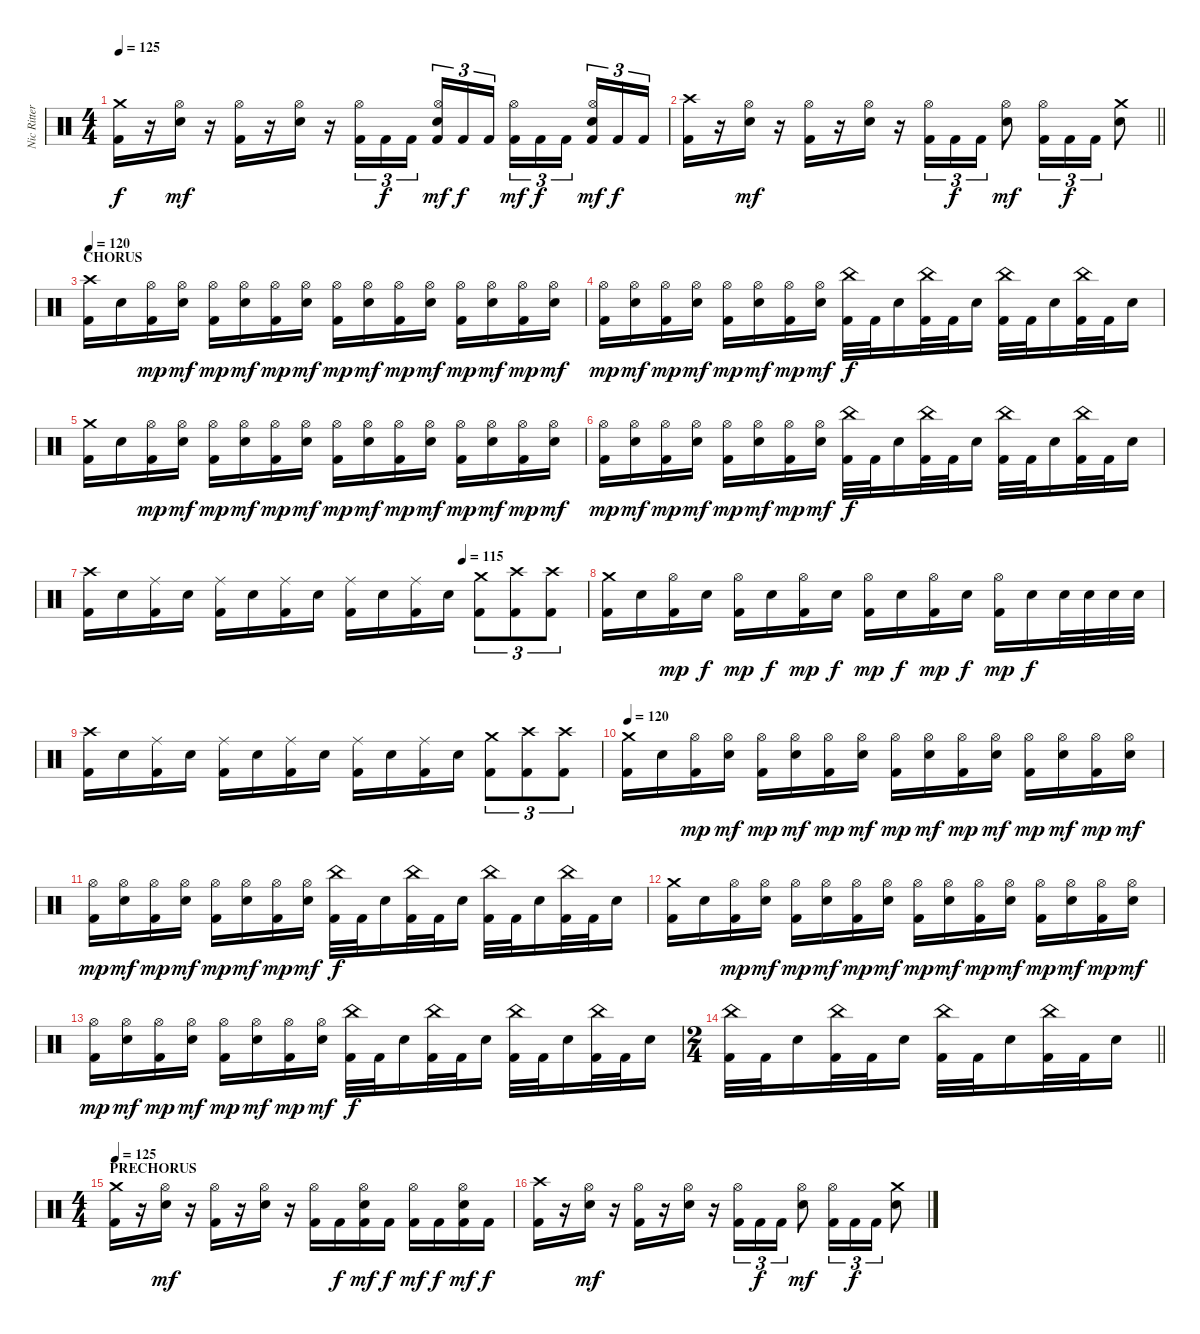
\track ("Nic Ritter" "Nic Ritter") {instrument percussion}
\staff {score}
\articulation defaults
\ts (4 4)
\tempo 125
\clef neutral
\ks c
("Crash medium (hit)" "Kick (hit) 2").16{dy f} r.16 ("Hi-Hat (open)" "Electric Snare (hit)").16{dy mf} r.16 ("Hi-Hat (open)" "Kick (hit) 2").16 r.16 ("Hi-Hat (open)" "Electric Snare (hit)").16 r.16 ("Hi-Hat (open)" "Kick (hit) 2").16{tu (3 2)} "Kick (hit) 2".16{tu (3 2) dy f} "Kick (hit) 2".16{tu (3 2) beam splitsecondary} ("Hi-Hat (open)" "Electric Snare (hit)" "Kick (hit) 2").16{tu (3 2) dy mf} "Kick (hit) 2".16{tu (3 2) dy f} "Kick (hit) 2".16{tu (3 2)} ("Hi-Hat (open)" "Kick (hit) 2").16{tu (3 2) dy mf} "Kick (hit) 2".16{tu (3 2) dy f} "Kick (hit) 2".16{tu (3 2) beam splitsecondary} ("Hi-Hat (open)" "Electric Snare (hit)" "Kick (hit) 2").16{tu (3 2) dy mf} "Kick (hit) 2".16{tu (3 2) dy f} "Kick (hit) 2".16{tu (3 2)} |
\barLineRight lightlight
("Crash high (hit)" "Kick (hit) 2").16 r.16 ("Hi-Hat (open)" "Electric Snare (hit)").16{dy mf} r.16 ("Hi-Hat (open)" "Kick (hit) 2").16 r.16 ("Hi-Hat (open)" "Electric Snare (hit)").16 r.16 ("Hi-Hat (open)" "Kick (hit) 2").16{tu (3 2)} "Kick (hit) 2".16{tu (3 2) dy f} "Kick (hit) 2".16{tu (3 2)} ("Hi-Hat (open)" "Electric Snare (hit)").8{dy mf} ("Hi-Hat (open)" "Kick (hit) 2").16{tu (3 2)} "Kick (hit) 2".16{tu (3 2) dy f} "Kick (hit) 2".16{tu (3 2)} ("Crash medium (hit)" "Electric Snare (hit)").8 |
\section ("" "CHORUS")
\tempo 120
("Crash high (hit)" "Kick (hit) 2").16 "Electric Snare (hit)".16 ("Hi-Hat (open)" "Kick (hit) 2").16{dy mp} ("Hi-Hat (open)" "Electric Snare (hit)").16{dy mf} ("Hi-Hat (open)" "Kick (hit) 2").16{dy mp} ("Hi-Hat (open)" "Electric Snare (hit)").16{dy mf} ("Hi-Hat (open)" "Kick (hit) 2").16{dy mp} ("Hi-Hat (open)" "Electric Snare (hit)").16{dy mf} ("Hi-Hat (open)" "Kick (hit) 2").16{dy mp} ("Hi-Hat (open)" "Electric Snare (hit)").16{dy mf} ("Hi-Hat (open)" "Kick (hit) 2").16{dy mp} ("Hi-Hat (open)" "Electric Snare (hit)").16{dy mf} ("Hi-Hat (open)" "Kick (hit) 2").16{dy mp} ("Hi-Hat (open)" "Electric Snare (hit)").16{dy mf} ("Hi-Hat (open)" "Kick (hit) 2").16{dy mp} ("Hi-Hat (open)" "Electric Snare (hit)").16{dy mf} |
("Hi-Hat (open)" "Kick (hit) 2").16{dy mp} ("Hi-Hat (open)" "Electric Snare (hit)").16{dy mf} ("Hi-Hat (open)" "Kick (hit) 2").16{dy mp} ("Hi-Hat (open)" "Electric Snare (hit)").16{dy mf} ("Hi-Hat (open)" "Kick (hit) 2").16{dy mp} ("Hi-Hat (open)" "Electric Snare (hit)").16{dy mf} ("Hi-Hat (open)" "Kick (hit) 2").16{dy mp} ("Hi-Hat (open)" "Electric Snare (hit)").16{dy mf} ("China (hit)" "Kick (hit) 2").32{dy f} "Kick (hit) 2".32 "Electric Snare (hit)".16 ("China (hit)" "Kick (hit) 2").32 "Kick (hit) 2".32 "Electric Snare (hit)".16 ("China (hit)" "Kick (hit) 2").32 "Kick (hit) 2".32 "Electric Snare (hit)".16 ("China (hit)" "Kick (hit) 2").32 "Kick (hit) 2".32 "Electric Snare (hit)".16 |
("Crash medium (hit)" "Kick (hit) 2").16 "Electric Snare (hit)".16 ("Hi-Hat (open)" "Kick (hit) 2").16{dy mp} ("Hi-Hat (open)" "Electric Snare (hit)").16{dy mf} ("Hi-Hat (open)" "Kick (hit) 2").16{dy mp} ("Hi-Hat (open)" "Electric Snare (hit)").16{dy mf} ("Hi-Hat (open)" "Kick (hit) 2").16{dy mp} ("Hi-Hat (open)" "Electric Snare (hit)").16{dy mf} ("Hi-Hat (open)" "Kick (hit) 2").16{dy mp} ("Hi-Hat (open)" "Electric Snare (hit)").16{dy mf} ("Hi-Hat (open)" "Kick (hit) 2").16{dy mp} ("Hi-Hat (open)" "Electric Snare (hit)").16{dy mf} ("Hi-Hat (open)" "Kick (hit) 2").16{dy mp} ("Hi-Hat (open)" "Electric Snare (hit)").16{dy mf} ("Hi-Hat (open)" "Kick (hit) 2").16{dy mp} ("Hi-Hat (open)" "Electric Snare (hit)").16{dy mf} |
("Hi-Hat (open)" "Kick (hit) 2").16{dy mp} ("Hi-Hat (open)" "Electric Snare (hit)").16{dy mf} ("Hi-Hat (open)" "Kick (hit) 2").16{dy mp} ("Hi-Hat (open)" "Electric Snare (hit)").16{dy mf} ("Hi-Hat (open)" "Kick (hit) 2").16{dy mp} ("Hi-Hat (open)" "Electric Snare (hit)").16{dy mf} ("Hi-Hat (open)" "Kick (hit) 2").16{dy mp} ("Hi-Hat (open)" "Electric Snare (hit)").16{dy mf} ("China (hit)" "Kick (hit) 2").32{dy f} "Kick (hit) 2".32 "Electric Snare (hit)".16 ("China (hit)" "Kick (hit) 2").32 "Kick (hit) 2".32 "Electric Snare (hit)".16 ("China (hit)" "Kick (hit) 2").32 "Kick (hit) 2".32 "Electric Snare (hit)".16 ("China (hit)" "Kick (hit) 2").32 "Kick (hit) 2".32 "Electric Snare (hit)".16 |
\tempo (115 0.75)
("Crash high (hit)" "Kick (hit) 2").16 "Electric Snare (hit)".16 ("Ride (middle)" "Kick (hit) 2").16 "Electric Snare (hit)".16 ("Ride (middle)" "Kick (hit) 2").16 "Electric Snare (hit)".16 ("Ride (middle)" "Kick (hit) 2").16 "Electric Snare (hit)".16 ("Ride (middle)" "Kick (hit) 2").16 "Electric Snare (hit)".16 ("Ride (middle)" "Kick (hit) 2").16 "Electric Snare (hit)".16 ("Crash medium (hit)" "Kick (hit) 2").8{tu (3 2)} ("Crash high (hit)" "Kick (hit) 2").8{tu (3 2)} ("Crash high (hit)" "Kick (hit) 2").8{tu (3 2)} |
("Crash medium (hit)" "Kick (hit) 2").16 "Electric Snare (hit)".16 ("Hi-Hat (open)" "Kick (hit) 2").16{dy mp} "Electric Snare (hit)".16{dy f} ("Hi-Hat (open)" "Kick (hit) 2").16{dy mp} "Electric Snare (hit)".16{dy f} ("Hi-Hat (open)" "Kick (hit) 2").16{dy mp} "Electric Snare (hit)".16{dy f} ("Hi-Hat (open)" "Kick (hit) 2").16{dy mp} "Electric Snare (hit)".16{dy f} ("Hi-Hat (open)" "Kick (hit) 2").16{dy mp} "Electric Snare (hit)".16{dy f} ("Hi-Hat (open)" "Kick (hit) 2").16{dy mp} "Electric Snare (hit)".16{dy f} "Electric Snare (hit)".32 "Electric Snare (hit)".32 "Electric Snare (hit)".32 "Electric Snare (hit)".32 |
("Crash high (hit)" "Kick (hit) 2").16 "Electric Snare (hit)".16 ("Ride (middle)" "Kick (hit) 2").16 "Electric Snare (hit)".16 ("Ride (middle)" "Kick (hit) 2").16 "Electric Snare (hit)".16 ("Ride (middle)" "Kick (hit) 2").16 "Electric Snare (hit)".16 ("Ride (middle)" "Kick (hit) 2").16 "Electric Snare (hit)".16 ("Ride (middle)" "Kick (hit) 2").16 "Electric Snare (hit)".16 ("Crash medium (hit)" "Kick (hit) 2").8{tu (3 2)} ("Crash high (hit)" "Kick (hit) 2").8{tu (3 2)} ("Crash high (hit)" "Kick (hit) 2").8{tu (3 2)} |
\tempo 120
("Crash medium (hit)" "Kick (hit) 2").16 "Electric Snare (hit)".16 ("Hi-Hat (open)" "Kick (hit) 2").16{dy mp} ("Hi-Hat (open)" "Electric Snare (hit)").16{dy mf} ("Hi-Hat (open)" "Kick (hit) 2").16{dy mp} ("Hi-Hat (open)" "Electric Snare (hit)").16{dy mf} ("Hi-Hat (open)" "Kick (hit) 2").16{dy mp} ("Hi-Hat (open)" "Electric Snare (hit)").16{dy mf} ("Hi-Hat (open)" "Kick (hit) 2").16{dy mp} ("Hi-Hat (open)" "Electric Snare (hit)").16{dy mf} ("Hi-Hat (open)" "Kick (hit) 2").16{dy mp} ("Hi-Hat (open)" "Electric Snare (hit)").16{dy mf} ("Hi-Hat (open)" "Kick (hit) 2").16{dy mp} ("Hi-Hat (open)" "Electric Snare (hit)").16{dy mf} ("Hi-Hat (open)" "Kick (hit) 2").16{dy mp} ("Hi-Hat (open)" "Electric Snare (hit)").16{dy mf} |
("Hi-Hat (open)" "Kick (hit) 2").16{dy mp} ("Hi-Hat (open)" "Electric Snare (hit)").16{dy mf} ("Hi-Hat (open)" "Kick (hit) 2").16{dy mp} ("Hi-Hat (open)" "Electric Snare (hit)").16{dy mf} ("Hi-Hat (open)" "Kick (hit) 2").16{dy mp} ("Hi-Hat (open)" "Electric Snare (hit)").16{dy mf} ("Hi-Hat (open)" "Kick (hit) 2").16{dy mp} ("Hi-Hat (open)" "Electric Snare (hit)").16{dy mf} ("China (hit)" "Kick (hit) 2").32{dy f} "Kick (hit) 2".32 "Electric Snare (hit)".16 ("China (hit)" "Kick (hit) 2").32 "Kick (hit) 2".32 "Electric Snare (hit)".16 ("China (hit)" "Kick (hit) 2").32 "Kick (hit) 2".32 "Electric Snare (hit)".16 ("China (hit)" "Kick (hit) 2").32 "Kick (hit) 2".32 "Electric Snare (hit)".16 |
("Crash medium (hit)" "Kick (hit) 2").16 "Electric Snare (hit)".16 ("Hi-Hat (open)" "Kick (hit) 2").16{dy mp} ("Hi-Hat (open)" "Electric Snare (hit)").16{dy mf} ("Hi-Hat (open)" "Kick (hit) 2").16{dy mp} ("Hi-Hat (open)" "Electric Snare (hit)").16{dy mf} ("Hi-Hat (open)" "Kick (hit) 2").16{dy mp} ("Hi-Hat (open)" "Electric Snare (hit)").16{dy mf} ("Hi-Hat (open)" "Kick (hit) 2").16{dy mp} ("Hi-Hat (open)" "Electric Snare (hit)").16{dy mf} ("Hi-Hat (open)" "Kick (hit) 2").16{dy mp} ("Hi-Hat (open)" "Electric Snare (hit)").16{dy mf} ("Hi-Hat (open)" "Kick (hit) 2").16{dy mp} ("Hi-Hat (open)" "Electric Snare (hit)").16{dy mf} ("Hi-Hat (open)" "Kick (hit) 2").16{dy mp} ("Hi-Hat (open)" "Electric Snare (hit)").16{dy mf} |
("Hi-Hat (open)" "Kick (hit) 2").16{dy mp} ("Hi-Hat (open)" "Electric Snare (hit)").16{dy mf} ("Hi-Hat (open)" "Kick (hit) 2").16{dy mp} ("Hi-Hat (open)" "Electric Snare (hit)").16{dy mf} ("Hi-Hat (open)" "Kick (hit) 2").16{dy mp} ("Hi-Hat (open)" "Electric Snare (hit)").16{dy mf} ("Hi-Hat (open)" "Kick (hit) 2").16{dy mp} ("Hi-Hat (open)" "Electric Snare (hit)").16{dy mf} ("China (hit)" "Kick (hit) 2").32{dy f} "Kick (hit) 2".32 "Electric Snare (hit)".16 ("China (hit)" "Kick (hit) 2").32 "Kick (hit) 2".32 "Electric Snare (hit)".16 ("China (hit)" "Kick (hit) 2").32 "Kick (hit) 2".32 "Electric Snare (hit)".16 ("China (hit)" "Kick (hit) 2").32 "Kick (hit) 2".32 "Electric Snare (hit)".16 |
\ts (2 4)
\barLineRight lightlight
("China (hit)" "Kick (hit) 2").32 "Kick (hit) 2".32 "Electric Snare (hit)".16 ("China (hit)" "Kick (hit) 2").32 "Kick (hit) 2".32 "Electric Snare (hit)".16 ("China (hit)" "Kick (hit) 2").32 "Kick (hit) 2".32 "Electric Snare (hit)".16 ("China (hit)" "Kick (hit) 2").32 "Kick (hit) 2".32 "Electric Snare (hit)".16 |
\ts (4 4)
\section ("" "PRECHORUS")
\tempo 125
("Crash medium (hit)" "Kick (hit) 2").16 r.16 ("Hi-Hat (open)" "Electric Snare (hit)").16{dy mf} r.16 ("Hi-Hat (open)" "Kick (hit) 2").16 r.16 ("Hi-Hat (open)" "Electric Snare (hit)").16 r.16 ("Hi-Hat (open)" "Kick (hit) 2").16 "Kick (hit) 2".16{dy f} ("Hi-Hat (open)" "Electric Snare (hit)" "Kick (hit) 2").16{dy mf} "Kick (hit) 2".16{dy f} ("Hi-Hat (open)" "Kick (hit) 2").16{dy mf} "Kick (hit) 2".16{dy f} ("Hi-Hat (open)" "Electric Snare (hit)" "Kick (hit) 2").16{dy mf} "Kick (hit) 2".16{dy f} |
("Crash high (hit)" "Kick (hit) 2").16 r.16 ("Hi-Hat (open)" "Electric Snare (hit)").16{dy mf} r.16 ("Hi-Hat (open)" "Kick (hit) 2").16 r.16 ("Hi-Hat (open)" "Electric Snare (hit)").16 r.16 ("Hi-Hat (open)" "Kick (hit) 2").16{tu (3 2)} "Kick (hit) 2".16{tu (3 2) dy f} "Kick (hit) 2".16{tu (3 2)} ("Hi-Hat (open)" "Electric Snare (hit)").8{dy mf} ("Hi-Hat (open)" "Kick (hit) 2").16{tu (3 2)} "Kick (hit) 2".16{tu (3 2) dy f} "Kick (hit) 2".16{tu (3 2)} ("Crash medium (hit)" "Electric Snare (hit)").8
